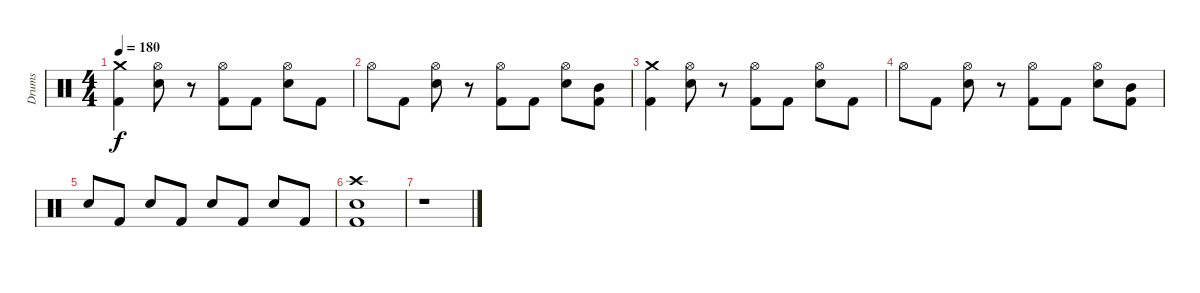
\track ("Drums" "Drums") {instrument percussion}
\staff {score}
\articulation defaults
\ts (4 4)
\tempo 180
\clef neutral
\ks c
("Crash medium (hit)" "Kick (hit) 2").4{dy f} ("Hi-Hat (open)" "Electric Snare (hit)").8 r.8 ("Hi-Hat (open)" "Kick (hit) 2").8 "Kick (hit) 2".8 ("Hi-Hat (open)" "Electric Snare (hit)").8 "Kick (hit) 2".8 |
"Hi-Hat (open)".8 "Kick (hit) 2".8 ("Hi-Hat (open)" "Electric Snare (hit)").8 r.8 ("Hi-Hat (open)" "Kick (hit) 2").8 "Kick (hit) 2".8 ("Hi-Hat (open)" "Electric Snare (hit)").8 ("Mid Tom (hit)" "Kick (hit) 2").8 |
("Crash medium (hit)" "Kick (hit) 2").4 ("Hi-Hat (open)" "Electric Snare (hit)").8 r.8 ("Hi-Hat (open)" "Kick (hit) 2").8 "Kick (hit) 2".8 ("Hi-Hat (open)" "Electric Snare (hit)").8 "Kick (hit) 2".8 |
"Hi-Hat (open)".8 "Kick (hit) 2".8 ("Hi-Hat (open)" "Electric Snare (hit)").8 r.8 ("Hi-Hat (open)" "Kick (hit) 2").8 "Kick (hit) 2".8 ("Hi-Hat (open)" "Electric Snare (hit)").8 ("Mid Tom (hit)" "Kick (hit) 2").8 |
"Electric Snare (hit)".8 "Kick (hit) 2".8 "Electric Snare (hit)".8 "Kick (hit) 2".8 "Electric Snare (hit)".8 "Kick (hit) 2".8 "Electric Snare (hit)".8 "Kick (hit) 2".8 |
("Crash high (hit)" "Electric Snare (hit)" "Kick (hit) 2").1 |
r.1
